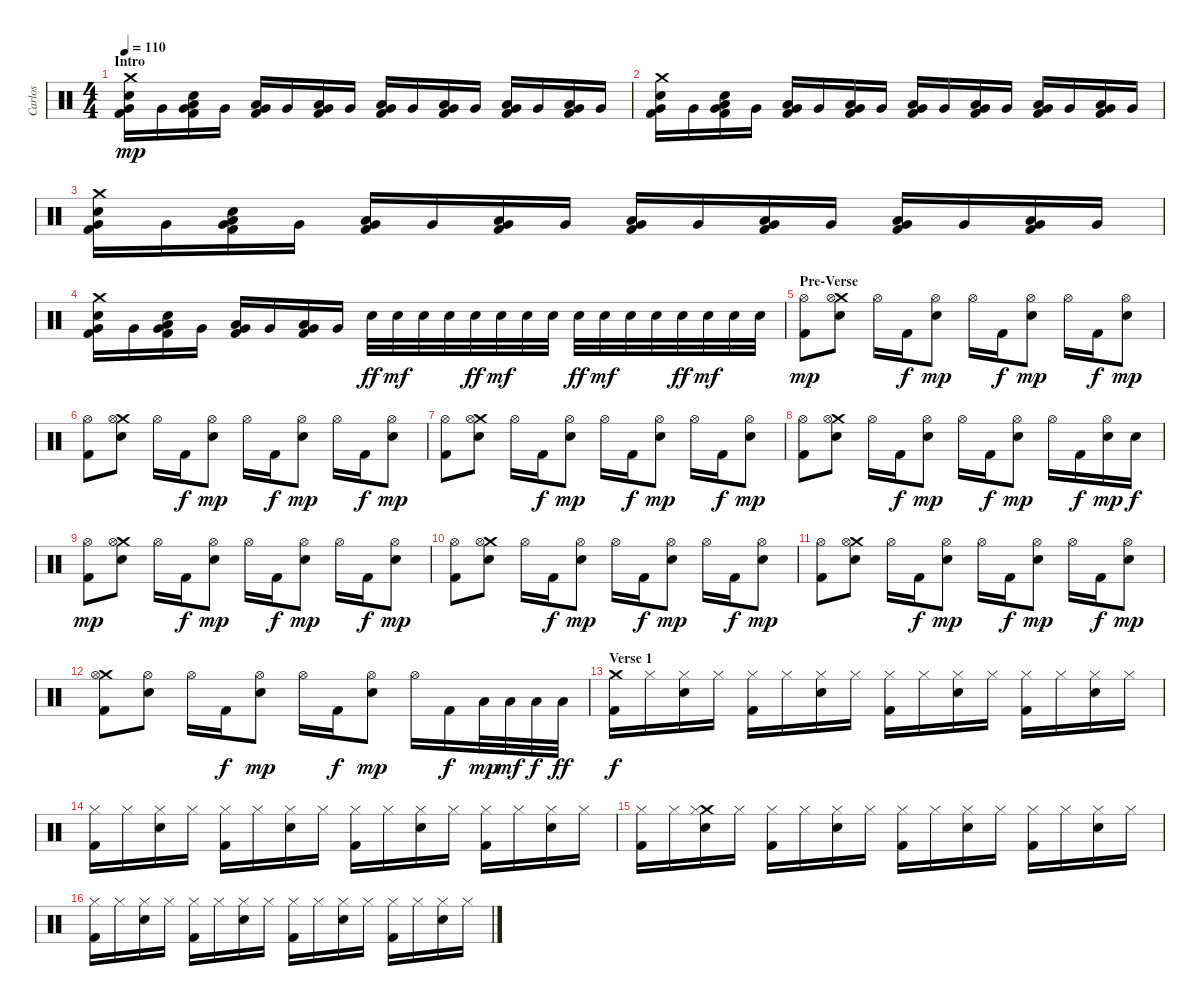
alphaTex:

\track ("Carlos" "Carlos") {instrument percussion}
\staff {score}
\articulation defaults
\ts (4 4)
\section ("" "Intro")
\tempo 110
\clef neutral
\ks c
("Crash medium (hit)" "Electric Snare (hit)" "Very Low Tom (hit)" "Kick (hit) 2").16{dy mp} "Very Low Tom (hit)".16 ("Electric Snare (hit)" "Very Low Tom (hit)" "Low Floor Tom (hit)" "Kick (hit) 2").16 "Very Low Tom (hit)".16 ("Very Low Tom (hit)" "Low Floor Tom (hit)" "Kick (hit) 2").16 "Very Low Tom (hit)".16 ("Very Low Tom (hit)" "Low Floor Tom (hit)" "Kick (hit) 2").16 "Very Low Tom (hit)".16 ("Very Low Tom (hit)" "Low Floor Tom (hit)" "Kick (hit) 2").16 "Very Low Tom (hit)".16 ("Very Low Tom (hit)" "Low Floor Tom (hit)" "Kick (hit) 2").16 "Very Low Tom (hit)".16 ("Very Low Tom (hit)" "Low Floor Tom (hit)" "Kick (hit) 2").16 "Very Low Tom (hit)".16 ("Very Low Tom (hit)" "Low Floor Tom (hit)" "Kick (hit) 2").16 "Very Low Tom (hit)".16 |
("Crash medium (hit)" "Electric Snare (hit)" "Very Low Tom (hit)" "Kick (hit) 2").16 "Very Low Tom (hit)".16 ("Electric Snare (hit)" "Very Low Tom (hit)" "Low Floor Tom (hit)" "Kick (hit) 2").16 "Very Low Tom (hit)".16 ("Very Low Tom (hit)" "Low Floor Tom (hit)" "Kick (hit) 2").16 "Very Low Tom (hit)".16 ("Very Low Tom (hit)" "Low Floor Tom (hit)" "Kick (hit) 2").16 "Very Low Tom (hit)".16 ("Very Low Tom (hit)" "Low Floor Tom (hit)" "Kick (hit) 2").16 "Very Low Tom (hit)".16 ("Very Low Tom (hit)" "Low Floor Tom (hit)" "Kick (hit) 2").16 "Very Low Tom (hit)".16 ("Very Low Tom (hit)" "Low Floor Tom (hit)" "Kick (hit) 2").16 "Very Low Tom (hit)".16 ("Very Low Tom (hit)" "Low Floor Tom (hit)" "Kick (hit) 2").16 "Very Low Tom (hit)".16 |
("Crash medium (hit)" "Electric Snare (hit)" "Very Low Tom (hit)" "Kick (hit) 2").16 "Very Low Tom (hit)".16 ("Electric Snare (hit)" "Very Low Tom (hit)" "Low Floor Tom (hit)" "Kick (hit) 2").16 "Very Low Tom (hit)".16 ("Very Low Tom (hit)" "Low Floor Tom (hit)" "Kick (hit) 2").16 "Very Low Tom (hit)".16 ("Very Low Tom (hit)" "Low Floor Tom (hit)" "Kick (hit) 2").16 "Very Low Tom (hit)".16 ("Very Low Tom (hit)" "Low Floor Tom (hit)" "Kick (hit) 2").16 "Very Low Tom (hit)".16 ("Very Low Tom (hit)" "Low Floor Tom (hit)" "Kick (hit) 2").16 "Very Low Tom (hit)".16 ("Very Low Tom (hit)" "Low Floor Tom (hit)" "Kick (hit) 2").16 "Very Low Tom (hit)".16 ("Very Low Tom (hit)" "Low Floor Tom (hit)" "Kick (hit) 2").16 "Very Low Tom (hit)".16 |
("Crash medium (hit)" "Electric Snare (hit)" "Very Low Tom (hit)" "Kick (hit) 2").16 "Very Low Tom (hit)".16 ("Electric Snare (hit)" "Very Low Tom (hit)" "Low Floor Tom (hit)" "Kick (hit) 2").16 "Very Low Tom (hit)".16 ("Very Low Tom (hit)" "Low Floor Tom (hit)" "Kick (hit) 2").16 "Very Low Tom (hit)".16 ("Very Low Tom (hit)" "Low Floor Tom (hit)" "Kick (hit) 2").16 "Very Low Tom (hit)".16 "Electric Snare (hit)".32{dy ff} "Electric Snare (hit)".32{dy mf} "Electric Snare (hit)".32 "Electric Snare (hit)".32 "Electric Snare (hit)".32{dy ff} "Electric Snare (hit)".32{dy mf} "Electric Snare (hit)".32 "Electric Snare (hit)".32 "Electric Snare (hit)".32{dy ff} "Electric Snare (hit)".32{dy mf} "Electric Snare (hit)".32 "Electric Snare (hit)".32 "Electric Snare (hit)".32{dy ff} "Electric Snare (hit)".32{dy mf} "Electric Snare (hit)".32 "Electric Snare (hit)".32 |
\section ("" "Pre-Verse")
("Hi-Hat (open)" "Kick (hit) 2").8{dy mp} ("Crash medium (hit)" "Hi-Hat (open)" "Electric Snare (hit)").8 "Hi-Hat (open)".16 "Kick (hit) 2".16{dy f} ("Hi-Hat (open)" "Electric Snare (hit)").8{dy mp} "Hi-Hat (open)".16 "Kick (hit) 2".16{dy f} ("Hi-Hat (open)" "Electric Snare (hit)").8{dy mp} "Hi-Hat (open)".16 "Kick (hit) 2".16{dy f} ("Hi-Hat (open)" "Electric Snare (hit)").8{dy mp} |
("Hi-Hat (open)" "Kick (hit) 2").8 ("Crash medium (hit)" "Hi-Hat (open)" "Electric Snare (hit)").8 "Hi-Hat (open)".16 "Kick (hit) 2".16{dy f} ("Hi-Hat (open)" "Electric Snare (hit)").8{dy mp} "Hi-Hat (open)".16 "Kick (hit) 2".16{dy f} ("Hi-Hat (open)" "Electric Snare (hit)").8{dy mp} "Hi-Hat (open)".16 "Kick (hit) 2".16{dy f} ("Hi-Hat (open)" "Electric Snare (hit)").8{dy mp} |
("Hi-Hat (open)" "Kick (hit) 2").8 ("Crash medium (hit)" "Hi-Hat (open)" "Electric Snare (hit)").8 "Hi-Hat (open)".16 "Kick (hit) 2".16{dy f} ("Hi-Hat (open)" "Electric Snare (hit)").8{dy mp} "Hi-Hat (open)".16 "Kick (hit) 2".16{dy f} ("Hi-Hat (open)" "Electric Snare (hit)").8{dy mp} "Hi-Hat (open)".16 "Kick (hit) 2".16{dy f} ("Hi-Hat (open)" "Electric Snare (hit)").8{dy mp} |
("Hi-Hat (open)" "Kick (hit) 2").8 ("Crash medium (hit)" "Hi-Hat (open)" "Electric Snare (hit)").8 "Hi-Hat (open)".16 "Kick (hit) 2".16{dy f} ("Hi-Hat (open)" "Electric Snare (hit)").8{dy mp} "Hi-Hat (open)".16 "Kick (hit) 2".16{dy f} ("Hi-Hat (open)" "Electric Snare (hit)").8{dy mp} "Hi-Hat (open)".16 "Kick (hit) 2".16{dy f} ("Hi-Hat (open)" "Electric Snare (hit)").16{dy mp} "Electric Snare (hit)".16{dy f} |
("Hi-Hat (open)" "Kick (hit) 2").8{dy mp} ("Crash medium (hit)" "Hi-Hat (open)" "Electric Snare (hit)").8 "Hi-Hat (open)".16 "Kick (hit) 2".16{dy f} ("Hi-Hat (open)" "Electric Snare (hit)").8{dy mp} "Hi-Hat (open)".16 "Kick (hit) 2".16{dy f} ("Hi-Hat (open)" "Electric Snare (hit)").8{dy mp} "Hi-Hat (open)".16 "Kick (hit) 2".16{dy f} ("Hi-Hat (open)" "Electric Snare (hit)").8{dy mp} |
("Hi-Hat (open)" "Kick (hit) 2").8 ("Crash medium (hit)" "Hi-Hat (open)" "Electric Snare (hit)").8 "Hi-Hat (open)".16 "Kick (hit) 2".16{dy f} ("Hi-Hat (open)" "Electric Snare (hit)").8{dy mp} "Hi-Hat (open)".16 "Kick (hit) 2".16{dy f} ("Hi-Hat (open)" "Electric Snare (hit)").8{dy mp} "Hi-Hat (open)".16 "Kick (hit) 2".16{dy f} ("Hi-Hat (open)" "Electric Snare (hit)").8{dy mp} |
("Hi-Hat (open)" "Kick (hit) 2").8 ("Crash medium (hit)" "Hi-Hat (open)" "Electric Snare (hit)").8 "Hi-Hat (open)".16 "Kick (hit) 2".16{dy f} ("Hi-Hat (open)" "Electric Snare (hit)").8{dy mp} "Hi-Hat (open)".16 "Kick (hit) 2".16{dy f} ("Hi-Hat (open)" "Electric Snare (hit)").8{dy mp} "Hi-Hat (open)".16 "Kick (hit) 2".16{dy f} ("Hi-Hat (open)" "Electric Snare (hit)").8{dy mp} |
("Crash medium (hit)" "Hi-Hat (open)" "Kick (hit) 2").8 ("Hi-Hat (open)" "Electric Snare (hit)").8 "Hi-Hat (open)".16 "Kick (hit) 2".16{dy f} ("Hi-Hat (open)" "Electric Snare (hit)").8{dy mp} "Hi-Hat (open)".16 "Kick (hit) 2".16{dy f} ("Hi-Hat (open)" "Electric Snare (hit)").8{dy mp} "Hi-Hat (open)".16 "Kick (hit) 2".16{dy f} "Low Tom (hit)".32{dy mp} "Low Tom (hit)".32{dy mf} "Low Tom (hit)".32{dy f} "Low Tom (hit)".32{dy ff} |
\section ("" "Verse 1")
("Crash medium (hit)" "Kick (hit) 2").16{dy f} "Hi-Hat (closed)".16 ("Hi-Hat (closed)" "Electric Snare (hit)").16 "Hi-Hat (closed)".16 ("Hi-Hat (closed)" "Kick (hit) 2").16 "Hi-Hat (closed)".16 ("Hi-Hat (closed)" "Electric Snare (hit)").16 "Hi-Hat (closed)".16 ("Hi-Hat (closed)" "Kick (hit) 2").16 "Hi-Hat (closed)".16 ("Hi-Hat (closed)" "Electric Snare (hit)").16 "Hi-Hat (closed)".16 ("Hi-Hat (closed)" "Kick (hit) 2").16 "Hi-Hat (closed)".16 ("Hi-Hat (closed)" "Electric Snare (hit)").16 "Hi-Hat (closed)".16 |
("Hi-Hat (closed)" "Kick (hit) 2").16 "Hi-Hat (closed)".16 ("Hi-Hat (closed)" "Electric Snare (hit)").16 "Hi-Hat (closed)".16 ("Hi-Hat (closed)" "Kick (hit) 2").16 "Hi-Hat (closed)".16 ("Hi-Hat (closed)" "Electric Snare (hit)").16 "Hi-Hat (closed)".16 ("Hi-Hat (closed)" "Kick (hit) 2").16 "Hi-Hat (closed)".16 ("Hi-Hat (closed)" "Electric Snare (hit)").16 "Hi-Hat (closed)".16 ("Hi-Hat (closed)" "Kick (hit) 2").16 "Hi-Hat (closed)".16 ("Hi-Hat (closed)" "Electric Snare (hit)").16 "Hi-Hat (closed)".16 |
("Hi-Hat (closed)" "Kick (hit) 2").16 "Hi-Hat (closed)".16 ("Crash medium (hit)" "Hi-Hat (closed)" "Electric Snare (hit)").16 "Hi-Hat (closed)".16 ("Hi-Hat (closed)" "Kick (hit) 2").16 "Hi-Hat (closed)".16 ("Hi-Hat (closed)" "Electric Snare (hit)").16 "Hi-Hat (closed)".16 ("Hi-Hat (closed)" "Kick (hit) 2").16 "Hi-Hat (closed)".16 ("Hi-Hat (closed)" "Electric Snare (hit)").16 "Hi-Hat (closed)".16 ("Hi-Hat (closed)" "Kick (hit) 2").16 "Hi-Hat (closed)".16 ("Hi-Hat (closed)" "Electric Snare (hit)").16 "Hi-Hat (closed)".16 |
("Hi-Hat (closed)" "Kick (hit) 2").16 "Hi-Hat (closed)".16 ("Hi-Hat (closed)" "Electric Snare (hit)").16 "Hi-Hat (closed)".16 ("Hi-Hat (closed)" "Kick (hit) 2").16 "Hi-Hat (closed)".16 ("Hi-Hat (closed)" "Electric Snare (hit)").16 "Hi-Hat (closed)".16 ("Hi-Hat (closed)" "Kick (hit) 2").16 "Hi-Hat (closed)".16 ("Hi-Hat (closed)" "Electric Snare (hit)").16 "Hi-Hat (closed)".16 ("Hi-Hat (closed)" "Kick (hit) 2").16 "Hi-Hat (closed)".16 ("Hi-Hat (closed)" "Electric Snare (hit)").16 "Hi-Hat (closed)".16
